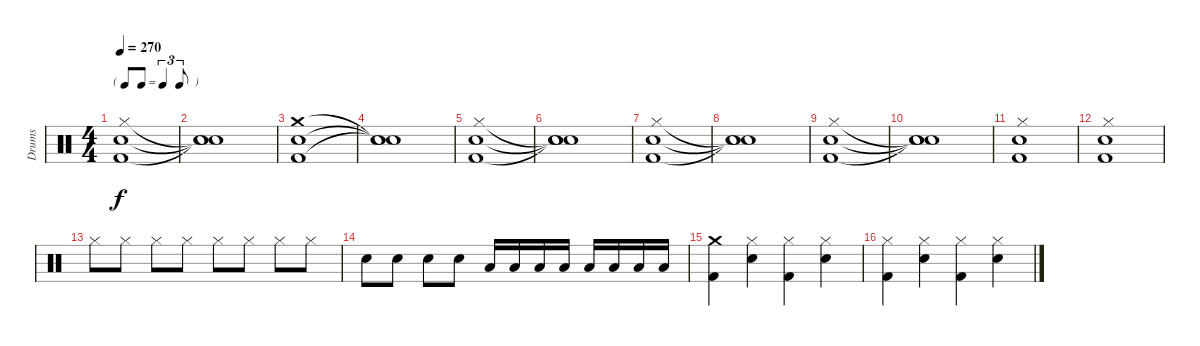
\track ("Drums" "Drums") {instrument percussion}
\staff {score}
\articulation defaults
\ts (4 4)
\tf triplet8th
\tempo 270
\clef neutral
\ks c
("Snare (hit) 2" "Hi-Hat (closed)" "Kick (hit) 2").1{dy f} |
("Snare (hit)"{t} "Snare (hit)"{t} "Snare (hit)"{t}).1 |
("Snare (hit) 2" "Crash medium (hit)" "Kick (hit) 2").1 |
("Snare (hit)"{t} "Snare (hit)"{t} "Snare (hit)"{t}).1 |
("Snare (hit) 2" "Hi-Hat (closed)" "Kick (hit) 2").1 |
("Snare (hit)"{t} "Snare (hit)"{t} "Snare (hit)"{t}).1 |
("Snare (hit) 2" "Hi-Hat (closed)" "Kick (hit) 2").1 |
("Snare (hit)"{t} "Snare (hit)"{t} "Snare (hit)"{t}).1 |
("Snare (hit) 2" "Hi-Hat (closed)" "Kick (hit) 2").1 |
("Snare (hit)"{t} "Snare (hit)"{t} "Snare (hit)"{t}).1 |
("Snare (hit) 2" "Hi-Hat (closed)" "Kick (hit) 2").1 |
("Snare (hit) 2" "Hi-Hat (closed)" "Kick (hit) 2").1 |
"Hi-Hat (closed)".8 "Hi-Hat (closed)".8 "Hi-Hat (closed)".8 "Hi-Hat (closed)".8 "Hi-Hat (closed)".8 "Hi-Hat (closed)".8 "Hi-Hat (closed)".8 "Hi-Hat (closed)".8 |
"Snare (hit) 2".8 "Snare (hit) 2".8 "Snare (hit) 2".8 "Snare (hit) 2".8 "Low Tom (hit)".16 "Low Tom (hit)".16 "Low Tom (hit)".16 "Low Tom (hit)".16 "Low Tom (hit)".16 "Low Tom (hit)".16 "Low Tom (hit)".16 "Low Tom (hit)".16 |
("Crash medium (hit)" "Kick (hit) 2").4 ("Snare (hit) 2" "Hi-Hat (closed)").4 ("Hi-Hat (closed)" "Kick (hit) 2").4 ("Snare (hit) 2" "Hi-Hat (closed)").4 |
("Hi-Hat (closed)" "Kick (hit) 2").4 ("Snare (hit) 2" "Hi-Hat (closed)").4 ("Hi-Hat (closed)" "Kick (hit) 2").4 ("Snare (hit) 2" "Hi-Hat (closed)").4
